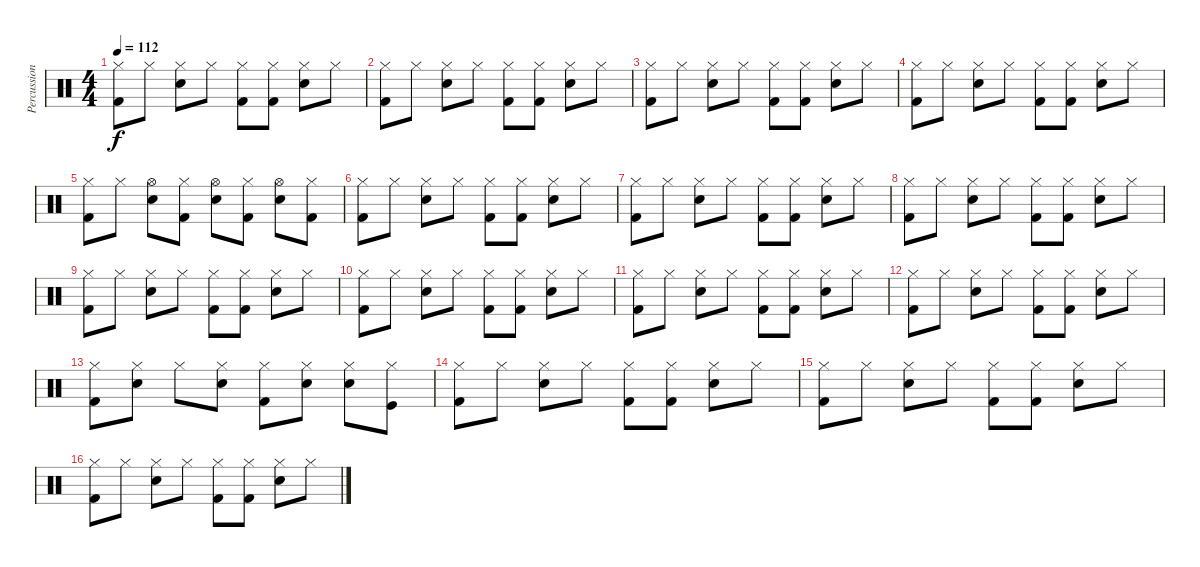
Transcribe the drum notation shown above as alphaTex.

\track ("Percussion" "Percussion") {instrument percussion}
\staff {score}
\articulation defaults
\ts (4 4)
\tempo 112
\clef neutral
\ks c
("Kick (hit) 2" "Hi-Hat (closed)").8{dy f} "Hi-Hat (closed)".8 ("Snare (hit) 2" "Hi-Hat (closed)").8 "Hi-Hat (closed)".8 ("Kick (hit) 2" "Hi-Hat (closed)").8 ("Kick (hit) 2" "Hi-Hat (closed)").8 ("Snare (hit) 2" "Hi-Hat (closed)").8 "Hi-Hat (closed)".8 |
("Kick (hit) 2" "Hi-Hat (closed)").8 "Hi-Hat (closed)".8 ("Snare (hit) 2" "Hi-Hat (closed)").8 "Hi-Hat (closed)".8 ("Kick (hit) 2" "Hi-Hat (closed)").8 ("Kick (hit) 2" "Hi-Hat (closed)").8 ("Snare (hit) 2" "Hi-Hat (closed)").8 "Hi-Hat (closed)".8 |
("Kick (hit) 2" "Hi-Hat (closed)").8 "Hi-Hat (closed)".8 ("Snare (hit) 2" "Hi-Hat (closed)").8 "Hi-Hat (closed)".8 ("Kick (hit) 2" "Hi-Hat (closed)").8 ("Kick (hit) 2" "Hi-Hat (closed)").8 ("Snare (hit) 2" "Hi-Hat (closed)").8 "Hi-Hat (closed)".8 |
("Kick (hit) 2" "Hi-Hat (closed)").8 "Hi-Hat (closed)".8 ("Snare (hit) 2" "Hi-Hat (closed)").8 "Hi-Hat (closed)".8 ("Kick (hit) 2" "Hi-Hat (closed)").8 ("Kick (hit) 2" "Hi-Hat (closed)").8 ("Snare (hit) 2" "Hi-Hat (closed)").8 "Hi-Hat (closed)".8 |
("Kick (hit) 2" "Hi-Hat (closed)").8 "Hi-Hat (closed)".8 ("Snare (hit) 2" "Hi-Hat (open)").8 ("Kick (hit) 2" "Hi-Hat (closed)").8 ("Snare (hit) 2" "Hi-Hat (open)").8 ("Kick (hit) 2" "Hi-Hat (closed)").8 ("Snare (hit) 2" "Hi-Hat (open)").8 ("Kick (hit) 2" "Hi-Hat (closed)").8 |
("Kick (hit) 2" "Hi-Hat (closed)").8 "Hi-Hat (closed)".8 ("Snare (hit) 2" "Hi-Hat (closed)").8 "Hi-Hat (closed)".8 ("Kick (hit) 2" "Hi-Hat (closed)").8 ("Kick (hit) 2" "Hi-Hat (closed)").8 ("Snare (hit) 2" "Hi-Hat (closed)").8 "Hi-Hat (closed)".8 |
("Kick (hit) 2" "Hi-Hat (closed)").8 "Hi-Hat (closed)".8 ("Snare (hit) 2" "Hi-Hat (closed)").8 "Hi-Hat (closed)".8 ("Kick (hit) 2" "Hi-Hat (closed)").8 ("Kick (hit) 2" "Hi-Hat (closed)").8 ("Snare (hit) 2" "Hi-Hat (closed)").8 "Hi-Hat (closed)".8 |
("Kick (hit) 2" "Hi-Hat (closed)").8 "Hi-Hat (closed)".8 ("Snare (hit) 2" "Hi-Hat (closed)").8 "Hi-Hat (closed)".8 ("Kick (hit) 2" "Hi-Hat (closed)").8 ("Kick (hit) 2" "Hi-Hat (closed)").8 ("Snare (hit) 2" "Hi-Hat (closed)").8 "Hi-Hat (closed)".8 |
("Kick (hit) 2" "Hi-Hat (closed)").8 "Hi-Hat (closed)".8 ("Snare (hit) 2" "Hi-Hat (closed)").8 "Hi-Hat (closed)".8 ("Kick (hit) 2" "Hi-Hat (closed)").8 ("Kick (hit) 2" "Hi-Hat (closed)").8 ("Snare (hit) 2" "Hi-Hat (closed)").8 "Hi-Hat (closed)".8 |
("Kick (hit) 2" "Hi-Hat (closed)").8 "Hi-Hat (closed)".8 ("Snare (hit) 2" "Hi-Hat (closed)").8 "Hi-Hat (closed)".8 ("Kick (hit) 2" "Hi-Hat (closed)").8 ("Kick (hit) 2" "Hi-Hat (closed)").8 ("Snare (hit) 2" "Hi-Hat (closed)").8 "Hi-Hat (closed)".8 |
("Kick (hit) 2" "Hi-Hat (closed)").8 "Hi-Hat (closed)".8 ("Snare (hit) 2" "Hi-Hat (closed)").8 "Hi-Hat (closed)".8 ("Kick (hit) 2" "Hi-Hat (closed)").8 ("Kick (hit) 2" "Hi-Hat (closed)").8 ("Snare (hit) 2" "Hi-Hat (closed)").8 "Hi-Hat (closed)".8 |
("Kick (hit) 2" "Hi-Hat (closed)").8 "Hi-Hat (closed)".8 ("Snare (hit) 2" "Hi-Hat (closed)").8 "Hi-Hat (closed)".8 ("Kick (hit) 2" "Hi-Hat (closed)").8 ("Kick (hit) 2" "Hi-Hat (closed)").8 ("Snare (hit) 2" "Hi-Hat (closed)").8 "Hi-Hat (closed)".8 |
("Kick (hit) 2" "Hi-Hat (closed)").8 ("Snare (hit) 2" "Hi-Hat (closed)").8 "Hi-Hat (closed)".8 ("Snare (hit) 2" "Hi-Hat (closed)").8 ("Kick (hit) 2" "Hi-Hat (closed)").8 ("Snare (hit) 2" "Hi-Hat (closed)").8 ("Snare (hit) 2" "Hi-Hat (closed)").8 ("Kick (hit)" "Hi-Hat (closed)").8 |
("Kick (hit) 2" "Hi-Hat (closed)").8 "Hi-Hat (closed)".8 ("Snare (hit) 2" "Hi-Hat (closed)").8 "Hi-Hat (closed)".8 ("Kick (hit) 2" "Hi-Hat (closed)").8 ("Kick (hit) 2" "Hi-Hat (closed)").8 ("Snare (hit) 2" "Hi-Hat (closed)").8 "Hi-Hat (closed)".8 |
("Kick (hit) 2" "Hi-Hat (closed)").8 "Hi-Hat (closed)".8 ("Snare (hit) 2" "Hi-Hat (closed)").8 "Hi-Hat (closed)".8 ("Kick (hit) 2" "Hi-Hat (closed)").8 ("Kick (hit) 2" "Hi-Hat (closed)").8 ("Snare (hit) 2" "Hi-Hat (closed)").8 "Hi-Hat (closed)".8 |
("Kick (hit) 2" "Hi-Hat (closed)").8 "Hi-Hat (closed)".8 ("Snare (hit) 2" "Hi-Hat (closed)").8 "Hi-Hat (closed)".8 ("Kick (hit) 2" "Hi-Hat (closed)").8 ("Kick (hit) 2" "Hi-Hat (closed)").8 ("Snare (hit) 2" "Hi-Hat (closed)").8 "Hi-Hat (closed)".8
